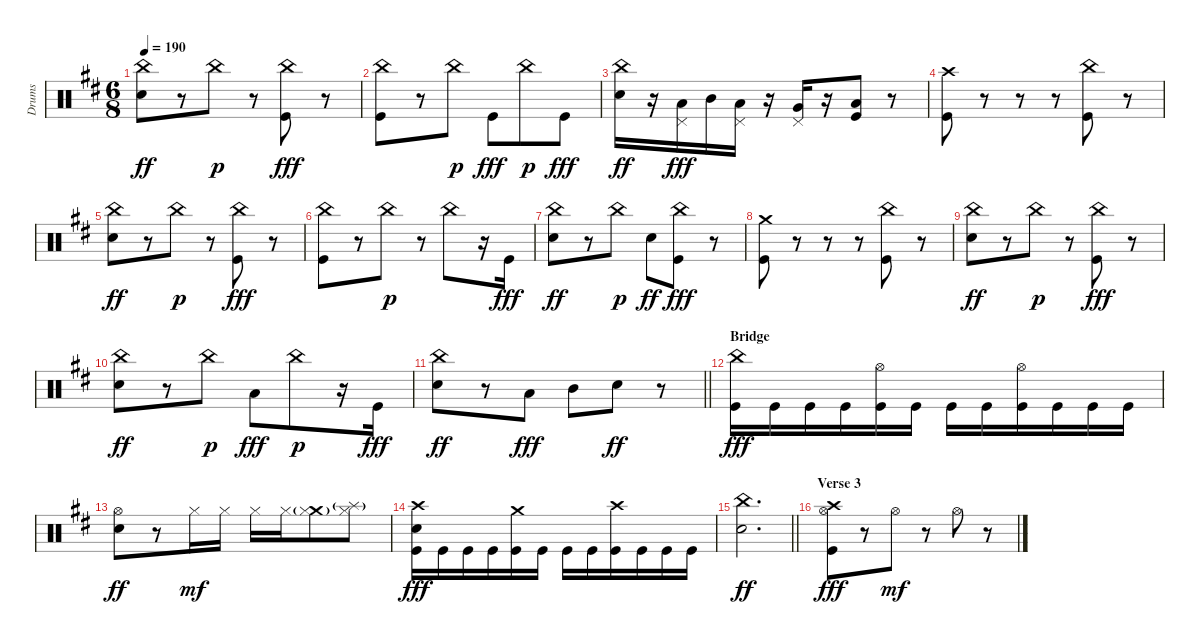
\track ("Drums" "Drums") {instrument percussion}
\staff {score}
\articulation defaults
\ts (6 8)
\tempo 190
\clef neutral
\ks bminor
("China (hit)" "Snare (hit) 2").8{dy ff} r.8 "China (hit)".8{dy p} r.8 ("China (hit)" "Kick (hit)").8{dy fff} r.8 |
("China (hit)" "Kick (hit)").8 r.8 "China (hit)".8{dy p} "Kick (hit)".8{dy fff} "China (hit)".8{dy p} "Kick (hit)".8{dy fff} |
("China (hit)" "Snare (hit) 2").16{dy ff} r.16 ("Pedal Hi-Hat (hit)" "Low Tom (hit)").16{dy fff} "Mid Tom (hit)".16 ("Pedal Hi-Hat (hit)" "Low Tom (hit)").16 r.16 ("Pedal Hi-Hat (hit)" "Very Low Tom (hit)").16 r.16 ("Low Floor Tom (hit)" "Kick (hit)").8 r.8 |
("Crash high (hit)" "Kick (hit)").8 r.8 r.8 r.8 ("China (hit)" "Kick (hit)").8 r.8 |
("China (hit)" "Snare (hit) 2").8{dy ff} r.8 "China (hit)".8{dy p} r.8 ("China (hit)" "Kick (hit)").8{dy fff} r.8 |
("China (hit)" "Kick (hit)").8 r.8 "China (hit)".8{dy p} r.8 "China (hit)".8 r.16 "Kick (hit)".16{dy fff} |
("China (hit)" "Snare (hit) 2").8{dy ff} r.8 "China (hit)".8{dy p} "Snare (hit) 2".8{dy ff} ("China (hit)" "Kick (hit)").8{dy fff} r.8 |
("Crash medium (hit)" "Kick (hit)").8 r.8 r.8 r.8 ("China (hit)" "Kick (hit)").8 r.8 |
("China (hit)" "Snare (hit) 2").8{dy ff} r.8 "China (hit)".8{dy p} r.8 ("China (hit)" "Kick (hit)").8{dy fff} r.8 |
("China (hit)" "Snare (hit) 2").8{dy ff} r.8 "China (hit)".8{dy p} "Low Tom (hit)".8{dy fff} "China (hit)".8{dy p} r.16 "Kick (hit)".16{dy fff} |
\barLineRight lightlight
("China (hit)" "Snare (hit) 2").8{dy ff} r.8 "Low Tom (hit)".8{dy fff} "Mid Tom (hit)".8 "Snare (hit) 2".8{dy ff} r.8 |
\section ("" "Bridge")
("China (hit)" "Kick (hit)").16{dy fff} "Kick (hit)".16 "Kick (hit)".16 "Kick (hit)".16 ("Hi-Hat (open)" "Kick (hit)").16 "Kick (hit)".16 "Kick (hit)".16 "Kick (hit)".16 ("Hi-Hat (open)" "Kick (hit)").16 "Kick (hit)".16 "Kick (hit)".16 "Kick (hit)".16 |
("Hi-Hat (open)" "Snare (hit) 2").8{dy ff} r.8 "Hi-Hat (closed)".16{dy mf} "Hi-Hat (closed)".16 "Hi-Hat (closed)".16 "Hi-Hat (closed)".16 ("Crash medium (hit)"{g} "Hi-Hat (closed)").8 ("Splash (hit)"{g} "Hi-Hat (closed)").8 |
("Crash high (hit)" "Snare (hit) 2" "Kick (hit)").16{dy fff} "Kick (hit)".16 "Kick (hit)".16 "Kick (hit)".16 ("Crash medium (hit)" "Kick (hit)").16 "Kick (hit)".16 "Kick (hit)".16 "Kick (hit)".16 ("Crash high (hit)" "Kick (hit)").16 "Kick (hit)".16 "Kick (hit)".16 "Kick (hit)".16 |
\barLineRight lightlight
("China (hit)" "Snare (hit) 2").2{d dy ff} |
\section ("" "Verse 3")
("Crash high (hit)" "Hi-Hat (open)" "Kick (hit)").8{dy fff} r.8 "Hi-Hat (open)".8{dy mf} r.8 "Hi-Hat (open)".8 r.8
